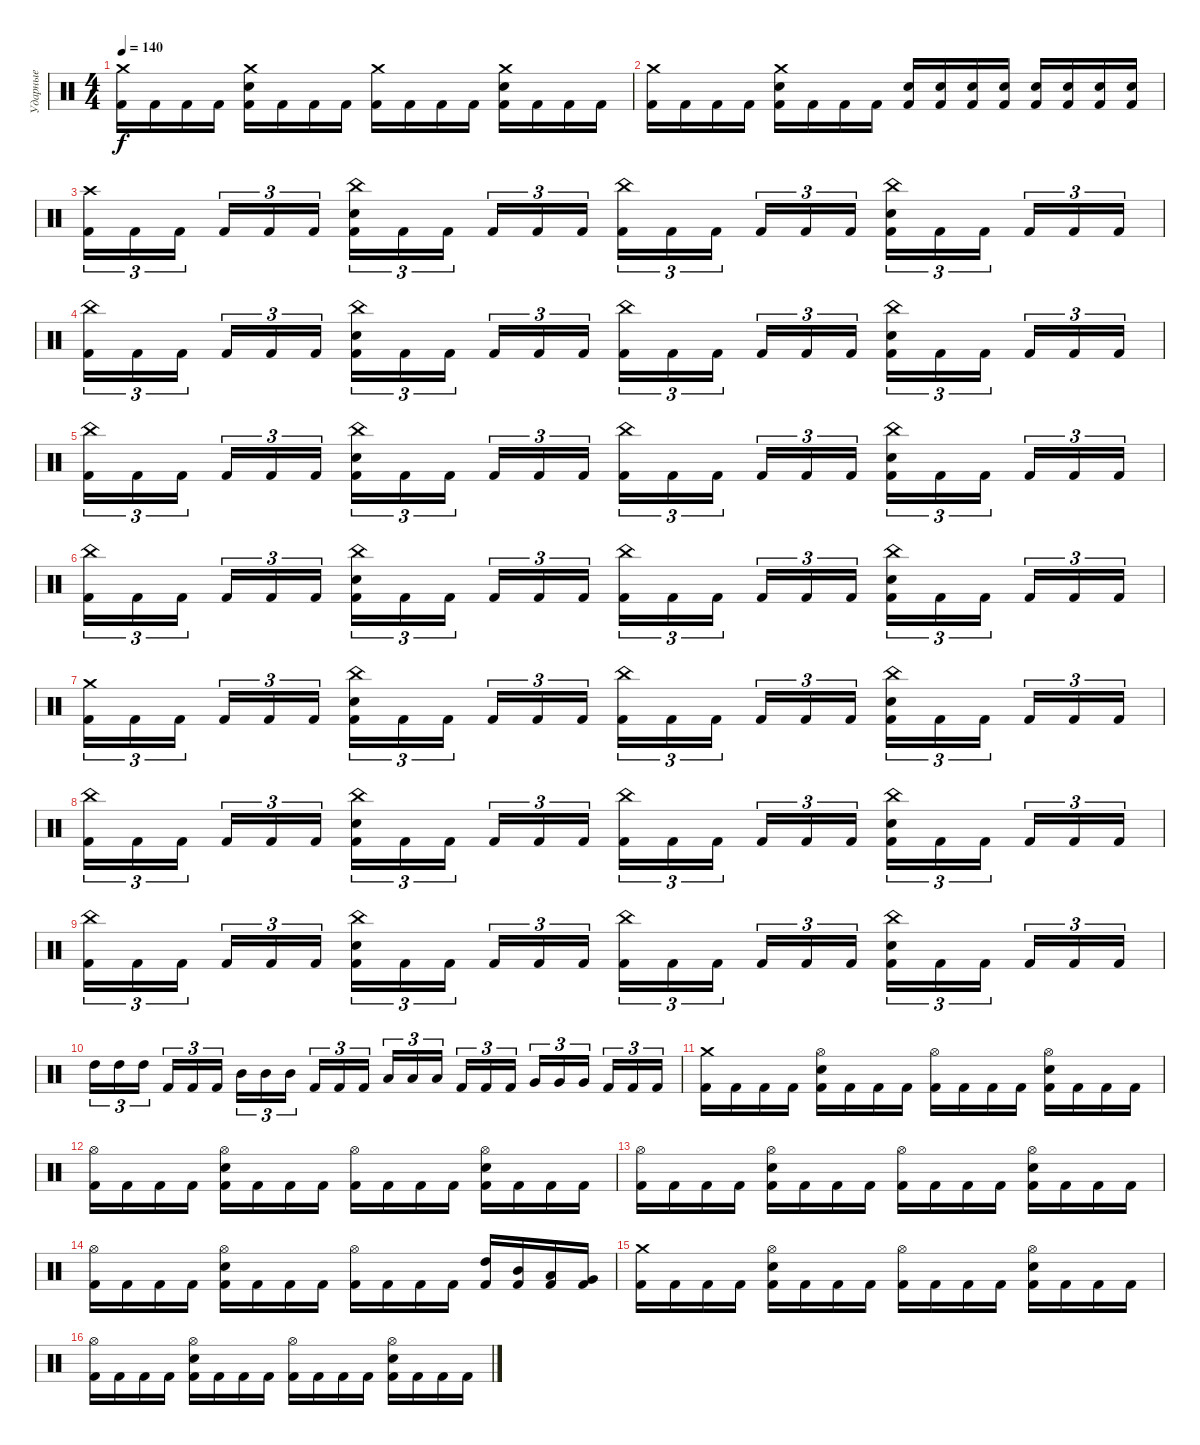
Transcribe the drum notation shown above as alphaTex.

\track ("Ударные" "Ударные") {instrument percussion}
\staff {score}
\articulation defaults
\ts (4 4)
\tempo 140
\clef neutral
\ks c
("Crash medium (hit)" "Kick (hit) 2").16{dy f} "Kick (hit) 2".16 "Kick (hit) 2".16 "Kick (hit) 2".16 ("Crash medium (hit)" "Electric Snare (hit)" "Kick (hit) 2").16 "Kick (hit) 2".16 "Kick (hit) 2".16 "Kick (hit) 2".16 ("Crash medium (hit)" "Kick (hit) 2").16 "Kick (hit) 2".16 "Kick (hit) 2".16 "Kick (hit) 2".16 ("Crash medium (hit)" "Electric Snare (hit)" "Kick (hit) 2").16 "Kick (hit) 2".16 "Kick (hit) 2".16 "Kick (hit) 2".16 |
("Crash medium (hit)" "Kick (hit) 2").16 "Kick (hit) 2".16 "Kick (hit) 2".16 "Kick (hit) 2".16 ("Crash medium (hit)" "Electric Snare (hit)" "Kick (hit) 2").16 "Kick (hit) 2".16 "Kick (hit) 2".16 "Kick (hit) 2".16 ("Electric Snare (hit)" "Kick (hit) 2").16 ("Electric Snare (hit)" "Kick (hit) 2").16 ("Electric Snare (hit)" "Kick (hit) 2").16 ("Electric Snare (hit)" "Kick (hit) 2").16 ("Electric Snare (hit)" "Kick (hit) 2").16 ("Electric Snare (hit)" "Kick (hit) 2").16 ("Electric Snare (hit)" "Kick (hit) 2").16 ("Electric Snare (hit)" "Kick (hit) 2").16 |
("Crash high (hit)" "Kick (hit) 2").16{tu (3 2)} "Kick (hit) 2".16{tu (3 2)} "Kick (hit) 2".16{tu (3 2) beam splitsecondary} "Kick (hit) 2".16{tu (3 2)} "Kick (hit) 2".16{tu (3 2)} "Kick (hit) 2".16{tu (3 2)} ("China (hit)" "Electric Snare (hit)" "Kick (hit) 2").16{tu (3 2)} "Kick (hit) 2".16{tu (3 2)} "Kick (hit) 2".16{tu (3 2) beam splitsecondary} "Kick (hit) 2".16{tu (3 2)} "Kick (hit) 2".16{tu (3 2)} "Kick (hit) 2".16{tu (3 2)} ("China (hit)" "Kick (hit) 2").16{tu (3 2)} "Kick (hit) 2".16{tu (3 2)} "Kick (hit) 2".16{tu (3 2) beam splitsecondary} "Kick (hit) 2".16{tu (3 2)} "Kick (hit) 2".16{tu (3 2)} "Kick (hit) 2".16{tu (3 2)} ("China (hit)" "Electric Snare (hit)" "Kick (hit) 2").16{tu (3 2)} "Kick (hit) 2".16{tu (3 2)} "Kick (hit) 2".16{tu (3 2) beam splitsecondary} "Kick (hit) 2".16{tu (3 2)} "Kick (hit) 2".16{tu (3 2)} "Kick (hit) 2".16{tu (3 2)} |
("China (hit)" "Kick (hit) 2").16{tu (3 2)} "Kick (hit) 2".16{tu (3 2)} "Kick (hit) 2".16{tu (3 2) beam splitsecondary} "Kick (hit) 2".16{tu (3 2)} "Kick (hit) 2".16{tu (3 2)} "Kick (hit) 2".16{tu (3 2)} ("China (hit)" "Electric Snare (hit)" "Kick (hit) 2").16{tu (3 2)} "Kick (hit) 2".16{tu (3 2)} "Kick (hit) 2".16{tu (3 2) beam splitsecondary} "Kick (hit) 2".16{tu (3 2)} "Kick (hit) 2".16{tu (3 2)} "Kick (hit) 2".16{tu (3 2)} ("China (hit)" "Kick (hit) 2").16{tu (3 2)} "Kick (hit) 2".16{tu (3 2)} "Kick (hit) 2".16{tu (3 2) beam splitsecondary} "Kick (hit) 2".16{tu (3 2)} "Kick (hit) 2".16{tu (3 2)} "Kick (hit) 2".16{tu (3 2)} ("China (hit)" "Electric Snare (hit)" "Kick (hit) 2").16{tu (3 2)} "Kick (hit) 2".16{tu (3 2)} "Kick (hit) 2".16{tu (3 2) beam splitsecondary} "Kick (hit) 2".16{tu (3 2)} "Kick (hit) 2".16{tu (3 2)} "Kick (hit) 2".16{tu (3 2)} |
("China (hit)" "Kick (hit) 2").16{tu (3 2)} "Kick (hit) 2".16{tu (3 2)} "Kick (hit) 2".16{tu (3 2) beam splitsecondary} "Kick (hit) 2".16{tu (3 2)} "Kick (hit) 2".16{tu (3 2)} "Kick (hit) 2".16{tu (3 2)} ("China (hit)" "Electric Snare (hit)" "Kick (hit) 2").16{tu (3 2)} "Kick (hit) 2".16{tu (3 2)} "Kick (hit) 2".16{tu (3 2) beam splitsecondary} "Kick (hit) 2".16{tu (3 2)} "Kick (hit) 2".16{tu (3 2)} "Kick (hit) 2".16{tu (3 2)} ("China (hit)" "Kick (hit) 2").16{tu (3 2)} "Kick (hit) 2".16{tu (3 2)} "Kick (hit) 2".16{tu (3 2) beam splitsecondary} "Kick (hit) 2".16{tu (3 2)} "Kick (hit) 2".16{tu (3 2)} "Kick (hit) 2".16{tu (3 2)} ("China (hit)" "Electric Snare (hit)" "Kick (hit) 2").16{tu (3 2)} "Kick (hit) 2".16{tu (3 2)} "Kick (hit) 2".16{tu (3 2) beam splitsecondary} "Kick (hit) 2".16{tu (3 2)} "Kick (hit) 2".16{tu (3 2)} "Kick (hit) 2".16{tu (3 2)} |
("China (hit)" "Kick (hit) 2").16{tu (3 2)} "Kick (hit) 2".16{tu (3 2)} "Kick (hit) 2".16{tu (3 2) beam splitsecondary} "Kick (hit) 2".16{tu (3 2)} "Kick (hit) 2".16{tu (3 2)} "Kick (hit) 2".16{tu (3 2)} ("China (hit)" "Electric Snare (hit)" "Kick (hit) 2").16{tu (3 2)} "Kick (hit) 2".16{tu (3 2)} "Kick (hit) 2".16{tu (3 2) beam splitsecondary} "Kick (hit) 2".16{tu (3 2)} "Kick (hit) 2".16{tu (3 2)} "Kick (hit) 2".16{tu (3 2)} ("China (hit)" "Kick (hit) 2").16{tu (3 2)} "Kick (hit) 2".16{tu (3 2)} "Kick (hit) 2".16{tu (3 2) beam splitsecondary} "Kick (hit) 2".16{tu (3 2)} "Kick (hit) 2".16{tu (3 2)} "Kick (hit) 2".16{tu (3 2)} ("China (hit)" "Electric Snare (hit)" "Kick (hit) 2").16{tu (3 2)} "Kick (hit) 2".16{tu (3 2)} "Kick (hit) 2".16{tu (3 2) beam splitsecondary} "Kick (hit) 2".16{tu (3 2)} "Kick (hit) 2".16{tu (3 2)} "Kick (hit) 2".16{tu (3 2)} |
("Crash medium (hit)" "Kick (hit) 2").16{tu (3 2)} "Kick (hit) 2".16{tu (3 2)} "Kick (hit) 2".16{tu (3 2) beam splitsecondary} "Kick (hit) 2".16{tu (3 2)} "Kick (hit) 2".16{tu (3 2)} "Kick (hit) 2".16{tu (3 2)} ("China (hit)" "Electric Snare (hit)" "Kick (hit) 2").16{tu (3 2)} "Kick (hit) 2".16{tu (3 2)} "Kick (hit) 2".16{tu (3 2) beam splitsecondary} "Kick (hit) 2".16{tu (3 2)} "Kick (hit) 2".16{tu (3 2)} "Kick (hit) 2".16{tu (3 2)} ("China (hit)" "Kick (hit) 2").16{tu (3 2)} "Kick (hit) 2".16{tu (3 2)} "Kick (hit) 2".16{tu (3 2) beam splitsecondary} "Kick (hit) 2".16{tu (3 2)} "Kick (hit) 2".16{tu (3 2)} "Kick (hit) 2".16{tu (3 2)} ("China (hit)" "Electric Snare (hit)" "Kick (hit) 2").16{tu (3 2)} "Kick (hit) 2".16{tu (3 2)} "Kick (hit) 2".16{tu (3 2) beam splitsecondary} "Kick (hit) 2".16{tu (3 2)} "Kick (hit) 2".16{tu (3 2)} "Kick (hit) 2".16{tu (3 2)} |
("China (hit)" "Kick (hit) 2").16{tu (3 2)} "Kick (hit) 2".16{tu (3 2)} "Kick (hit) 2".16{tu (3 2) beam splitsecondary} "Kick (hit) 2".16{tu (3 2)} "Kick (hit) 2".16{tu (3 2)} "Kick (hit) 2".16{tu (3 2)} ("China (hit)" "Electric Snare (hit)" "Kick (hit) 2").16{tu (3 2)} "Kick (hit) 2".16{tu (3 2)} "Kick (hit) 2".16{tu (3 2) beam splitsecondary} "Kick (hit) 2".16{tu (3 2)} "Kick (hit) 2".16{tu (3 2)} "Kick (hit) 2".16{tu (3 2)} ("China (hit)" "Kick (hit) 2").16{tu (3 2)} "Kick (hit) 2".16{tu (3 2)} "Kick (hit) 2".16{tu (3 2) beam splitsecondary} "Kick (hit) 2".16{tu (3 2)} "Kick (hit) 2".16{tu (3 2)} "Kick (hit) 2".16{tu (3 2)} ("China (hit)" "Electric Snare (hit)" "Kick (hit) 2").16{tu (3 2)} "Kick (hit) 2".16{tu (3 2)} "Kick (hit) 2".16{tu (3 2) beam splitsecondary} "Kick (hit) 2".16{tu (3 2)} "Kick (hit) 2".16{tu (3 2)} "Kick (hit) 2".16{tu (3 2)} |
("China (hit)" "Kick (hit) 2").16{tu (3 2)} "Kick (hit) 2".16{tu (3 2)} "Kick (hit) 2".16{tu (3 2) beam splitsecondary} "Kick (hit) 2".16{tu (3 2)} "Kick (hit) 2".16{tu (3 2)} "Kick (hit) 2".16{tu (3 2)} ("China (hit)" "Electric Snare (hit)" "Kick (hit) 2").16{tu (3 2)} "Kick (hit) 2".16{tu (3 2)} "Kick (hit) 2".16{tu (3 2) beam splitsecondary} "Kick (hit) 2".16{tu (3 2)} "Kick (hit) 2".16{tu (3 2)} "Kick (hit) 2".16{tu (3 2)} ("China (hit)" "Kick (hit) 2").16{tu (3 2)} "Kick (hit) 2".16{tu (3 2)} "Kick (hit) 2".16{tu (3 2) beam splitsecondary} "Kick (hit) 2".16{tu (3 2)} "Kick (hit) 2".16{tu (3 2)} "Kick (hit) 2".16{tu (3 2)} ("China (hit)" "Electric Snare (hit)" "Kick (hit) 2").16{tu (3 2)} "Kick (hit) 2".16{tu (3 2)} "Kick (hit) 2".16{tu (3 2) beam splitsecondary} "Kick (hit) 2".16{tu (3 2)} "Kick (hit) 2".16{tu (3 2)} "Kick (hit) 2".16{tu (3 2)} |
"High Tom (hit)".16{tu (3 2)} "High Tom (hit)".16{tu (3 2)} "High Tom (hit)".16{tu (3 2) beam splitsecondary} "Kick (hit) 2".16{tu (3 2)} "Kick (hit) 2".16{tu (3 2)} "Kick (hit) 2".16{tu (3 2)} "Mid Tom (hit)".16{tu (3 2)} "Mid Tom (hit)".16{tu (3 2)} "Mid Tom (hit)".16{tu (3 2) beam splitsecondary} "Kick (hit) 2".16{tu (3 2)} "Kick (hit) 2".16{tu (3 2)} "Kick (hit) 2".16{tu (3 2)} "Low Tom (hit)".16{tu (3 2)} "Low Tom (hit)".16{tu (3 2)} "Low Tom (hit)".16{tu (3 2) beam splitsecondary} "Kick (hit) 2".16{tu (3 2)} "Kick (hit) 2".16{tu (3 2)} "Kick (hit) 2".16{tu (3 2)} "Very Low Tom (hit)".16{tu (3 2)} "Very Low Tom (hit)".16{tu (3 2)} "Very Low Tom (hit)".16{tu (3 2) beam splitsecondary} "Kick (hit) 2".16{tu (3 2)} "Kick (hit) 2".16{tu (3 2)} "Kick (hit) 2".16{tu (3 2)} |
("Crash medium (hit)" "Kick (hit) 2").16 "Kick (hit) 2".16 "Kick (hit) 2".16 "Kick (hit) 2".16 ("Hi-Hat (open)" "Electric Snare (hit)" "Kick (hit) 2").16 "Kick (hit) 2".16 "Kick (hit) 2".16 "Kick (hit) 2".16 ("Hi-Hat (open)" "Kick (hit) 2").16 "Kick (hit) 2".16 "Kick (hit) 2".16 "Kick (hit) 2".16 ("Hi-Hat (open)" "Electric Snare (hit)" "Kick (hit) 2").16 "Kick (hit) 2".16 "Kick (hit) 2".16 "Kick (hit) 2".16 |
("Hi-Hat (open)" "Kick (hit) 2").16 "Kick (hit) 2".16 "Kick (hit) 2".16 "Kick (hit) 2".16 ("Hi-Hat (open)" "Electric Snare (hit)" "Kick (hit) 2").16 "Kick (hit) 2".16 "Kick (hit) 2".16 "Kick (hit) 2".16 ("Hi-Hat (open)" "Kick (hit) 2").16 "Kick (hit) 2".16 "Kick (hit) 2".16 "Kick (hit) 2".16 ("Hi-Hat (open)" "Electric Snare (hit)" "Kick (hit) 2").16 "Kick (hit) 2".16 "Kick (hit) 2".16 "Kick (hit) 2".16 |
("Hi-Hat (open)" "Kick (hit) 2").16 "Kick (hit) 2".16 "Kick (hit) 2".16 "Kick (hit) 2".16 ("Hi-Hat (open)" "Electric Snare (hit)" "Kick (hit) 2").16 "Kick (hit) 2".16 "Kick (hit) 2".16 "Kick (hit) 2".16 ("Hi-Hat (open)" "Kick (hit) 2").16 "Kick (hit) 2".16 "Kick (hit) 2".16 "Kick (hit) 2".16 ("Hi-Hat (open)" "Electric Snare (hit)" "Kick (hit) 2").16 "Kick (hit) 2".16 "Kick (hit) 2".16 "Kick (hit) 2".16 |
("Hi-Hat (open)" "Kick (hit) 2").16 "Kick (hit) 2".16 "Kick (hit) 2".16 "Kick (hit) 2".16 ("Hi-Hat (open)" "Electric Snare (hit)" "Kick (hit) 2").16 "Kick (hit) 2".16 "Kick (hit) 2".16 "Kick (hit) 2".16 ("Hi-Hat (open)" "Kick (hit) 2").16 "Kick (hit) 2".16 "Kick (hit) 2".16 "Kick (hit) 2".16 ("High Tom (hit)" "Kick (hit) 2").16 ("Mid Tom (hit)" "Kick (hit) 2").16 ("Low Tom (hit)" "Kick (hit) 2").16 ("Very Low Tom (hit)" "Kick (hit) 2").16 |
("Crash medium (hit)" "Kick (hit) 2").16 "Kick (hit) 2".16 "Kick (hit) 2".16 "Kick (hit) 2".16 ("Hi-Hat (open)" "Electric Snare (hit)" "Kick (hit) 2").16 "Kick (hit) 2".16 "Kick (hit) 2".16 "Kick (hit) 2".16 ("Hi-Hat (open)" "Kick (hit) 2").16 "Kick (hit) 2".16 "Kick (hit) 2".16 "Kick (hit) 2".16 ("Hi-Hat (open)" "Electric Snare (hit)" "Kick (hit) 2").16 "Kick (hit) 2".16 "Kick (hit) 2".16 "Kick (hit) 2".16 |
("Hi-Hat (open)" "Kick (hit) 2").16 "Kick (hit) 2".16 "Kick (hit) 2".16 "Kick (hit) 2".16 ("Hi-Hat (open)" "Electric Snare (hit)" "Kick (hit) 2").16 "Kick (hit) 2".16 "Kick (hit) 2".16 "Kick (hit) 2".16 ("Hi-Hat (open)" "Kick (hit) 2").16 "Kick (hit) 2".16 "Kick (hit) 2".16 "Kick (hit) 2".16 ("Hi-Hat (open)" "Electric Snare (hit)" "Kick (hit) 2").16 "Kick (hit) 2".16 "Kick (hit) 2".16 "Kick (hit) 2".16
